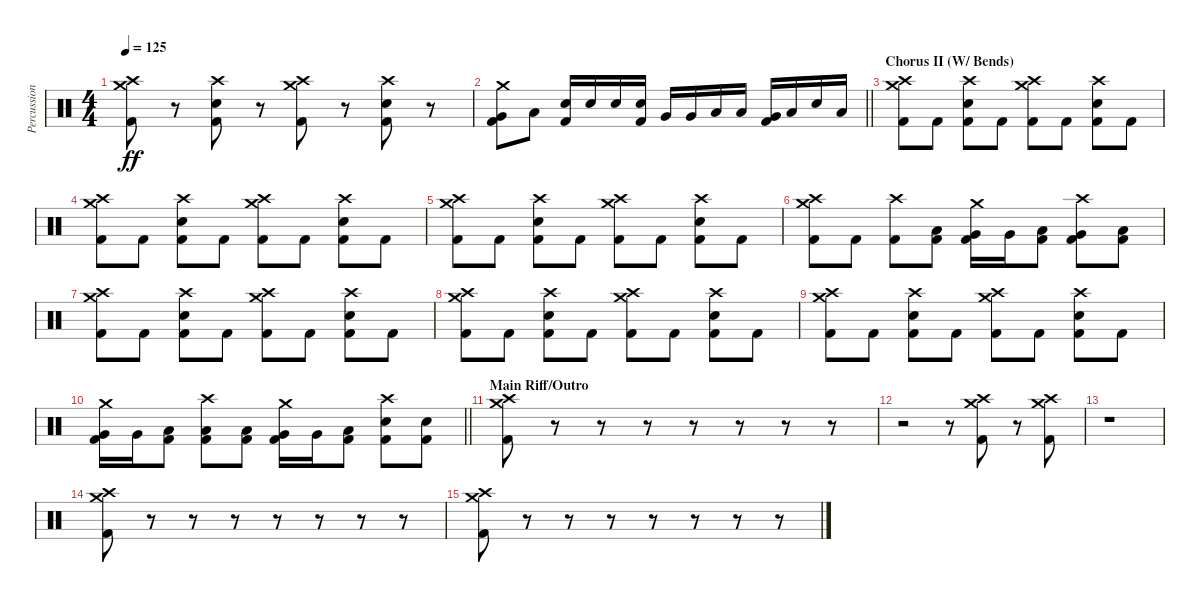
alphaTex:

\track ("Percussion" "Percussion") {instrument percussion}
\staff {score}
\articulation defaults
\ts (4 4)
\tempo 125
\clef neutral
\ks c
("Crash medium (hit)" "Crash high (hit)" "Kick (hit) 2").8{dy ff} r.8 ("Crash high (hit)" "Electric Snare (hit)" "Kick (hit) 2").8 r.8 ("Crash medium (hit)" "Crash high (hit)" "Kick (hit) 2").8 r.8 ("Crash high (hit)" "Electric Snare (hit)" "Kick (hit) 2").8 r.8 |
\barLineRight lightlight
("Crash medium (hit)" "Very Low Tom (hit)" "Kick (hit) 2").8 "Low Floor Tom (hit)".8 ("Electric Snare (hit)" "Kick (hit) 2").16 "Electric Snare (hit)".16 "Electric Snare (hit)".16 ("Electric Snare (hit)" "Kick (hit) 2").16 "Very Low Tom (hit)".16 "Very Low Tom (hit)".16 "Low Floor Tom (hit)".16 "Low Floor Tom (hit)".16 ("Very Low Tom (hit)" "Kick (hit) 2").16 "Low Floor Tom (hit)".16 "Electric Snare (hit)".16 "Low Floor Tom (hit)".16 |
\section ("" "Chorus II (W/ Bends)")
("Crash medium (hit)" "Crash high (hit)" "Kick (hit) 2").8 "Kick (hit) 2".8 ("Crash high (hit)" "Electric Snare (hit)" "Kick (hit) 2").8 "Kick (hit) 2".8 ("Crash medium (hit)" "Crash high (hit)" "Kick (hit) 2").8 "Kick (hit) 2".8 ("Crash high (hit)" "Electric Snare (hit)" "Kick (hit) 2").8 "Kick (hit) 2".8 |
("Crash medium (hit)" "Crash high (hit)" "Kick (hit) 2").8 "Kick (hit) 2".8 ("Crash high (hit)" "Electric Snare (hit)" "Kick (hit) 2").8 "Kick (hit) 2".8 ("Crash medium (hit)" "Crash high (hit)" "Kick (hit) 2").8 "Kick (hit) 2".8 ("Crash high (hit)" "Electric Snare (hit)" "Kick (hit) 2").8 "Kick (hit) 2".8 |
("Crash medium (hit)" "Crash high (hit)" "Kick (hit) 2").8 "Kick (hit) 2".8 ("Crash high (hit)" "Electric Snare (hit)" "Kick (hit) 2").8 "Kick (hit) 2".8 ("Crash medium (hit)" "Crash high (hit)" "Kick (hit) 2").8 "Kick (hit) 2".8 ("Crash high (hit)" "Electric Snare (hit)" "Kick (hit) 2").8 "Kick (hit) 2".8 |
("Crash medium (hit)" "Crash high (hit)" "Kick (hit) 2").8 "Kick (hit) 2".8 ("Crash high (hit)" "Kick (hit) 2").8 ("Low Floor Tom (hit)" "Kick (hit) 2").8 ("Crash medium (hit)" "Very Low Tom (hit)" "Kick (hit) 2").16 "Very Low Tom (hit)".16 ("Low Floor Tom (hit)" "Kick (hit) 2").8 ("Crash high (hit)" "Very Low Tom (hit)" "Kick (hit) 2").8 ("Low Floor Tom (hit)" "Kick (hit) 2").8 |
("Crash medium (hit)" "Crash high (hit)" "Kick (hit) 2").8 "Kick (hit) 2".8 ("Crash high (hit)" "Electric Snare (hit)" "Kick (hit) 2").8 "Kick (hit) 2".8 ("Crash medium (hit)" "Crash high (hit)" "Kick (hit) 2").8 "Kick (hit) 2".8 ("Crash high (hit)" "Electric Snare (hit)" "Kick (hit) 2").8 "Kick (hit) 2".8 |
("Crash medium (hit)" "Crash high (hit)" "Kick (hit) 2").8 "Kick (hit) 2".8 ("Crash high (hit)" "Electric Snare (hit)" "Kick (hit) 2").8 "Kick (hit) 2".8 ("Crash medium (hit)" "Crash high (hit)" "Kick (hit) 2").8 "Kick (hit) 2".8 ("Crash high (hit)" "Electric Snare (hit)" "Kick (hit) 2").8 "Kick (hit) 2".8 |
("Crash medium (hit)" "Crash high (hit)" "Kick (hit) 2").8 "Kick (hit) 2".8 ("Crash high (hit)" "Electric Snare (hit)" "Kick (hit) 2").8 "Kick (hit) 2".8 ("Crash medium (hit)" "Crash high (hit)" "Kick (hit) 2").8 "Kick (hit) 2".8 ("Crash high (hit)" "Electric Snare (hit)" "Kick (hit) 2").8 "Kick (hit) 2".8 |
\barLineRight lightlight
("Crash medium (hit)" "Very Low Tom (hit)" "Kick (hit) 2").16 "Very Low Tom (hit)".16 ("Low Floor Tom (hit)" "Kick (hit) 2").8 ("Crash high (hit)" "Low Floor Tom (hit)" "Kick (hit) 2").8 ("Low Floor Tom (hit)" "Kick (hit) 2").8 ("Crash medium (hit)" "Very Low Tom (hit)" "Kick (hit) 2").16 "Very Low Tom (hit)".16 ("Low Floor Tom (hit)" "Kick (hit) 2").8 ("Crash high (hit)" "Electric Snare (hit)" "Kick (hit) 2").8 ("Electric Snare (hit)" "Kick (hit) 2").8 |
\section ("" "Main Riff/Outro")
("Crash medium (hit)" "Crash high (hit)" "Kick (hit) 2").8 r.8 r.8 r.8 r.8 r.8 r.8 r.8 |
r.2 r.8 ("Crash medium (hit)" "Crash high (hit)" "Kick (hit) 2").8 r.8 ("Crash medium (hit)" "Crash high (hit)" "Kick (hit) 2").8 |
r.1 |
("Crash medium (hit)" "Crash high (hit)" "Kick (hit) 2").8 r.8 r.8 r.8 r.8 r.8 r.8 r.8 |
("Crash medium (hit)" "Crash high (hit)" "Kick (hit) 2").8 r.8 r.8 r.8 r.8 r.8 r.8 r.8
